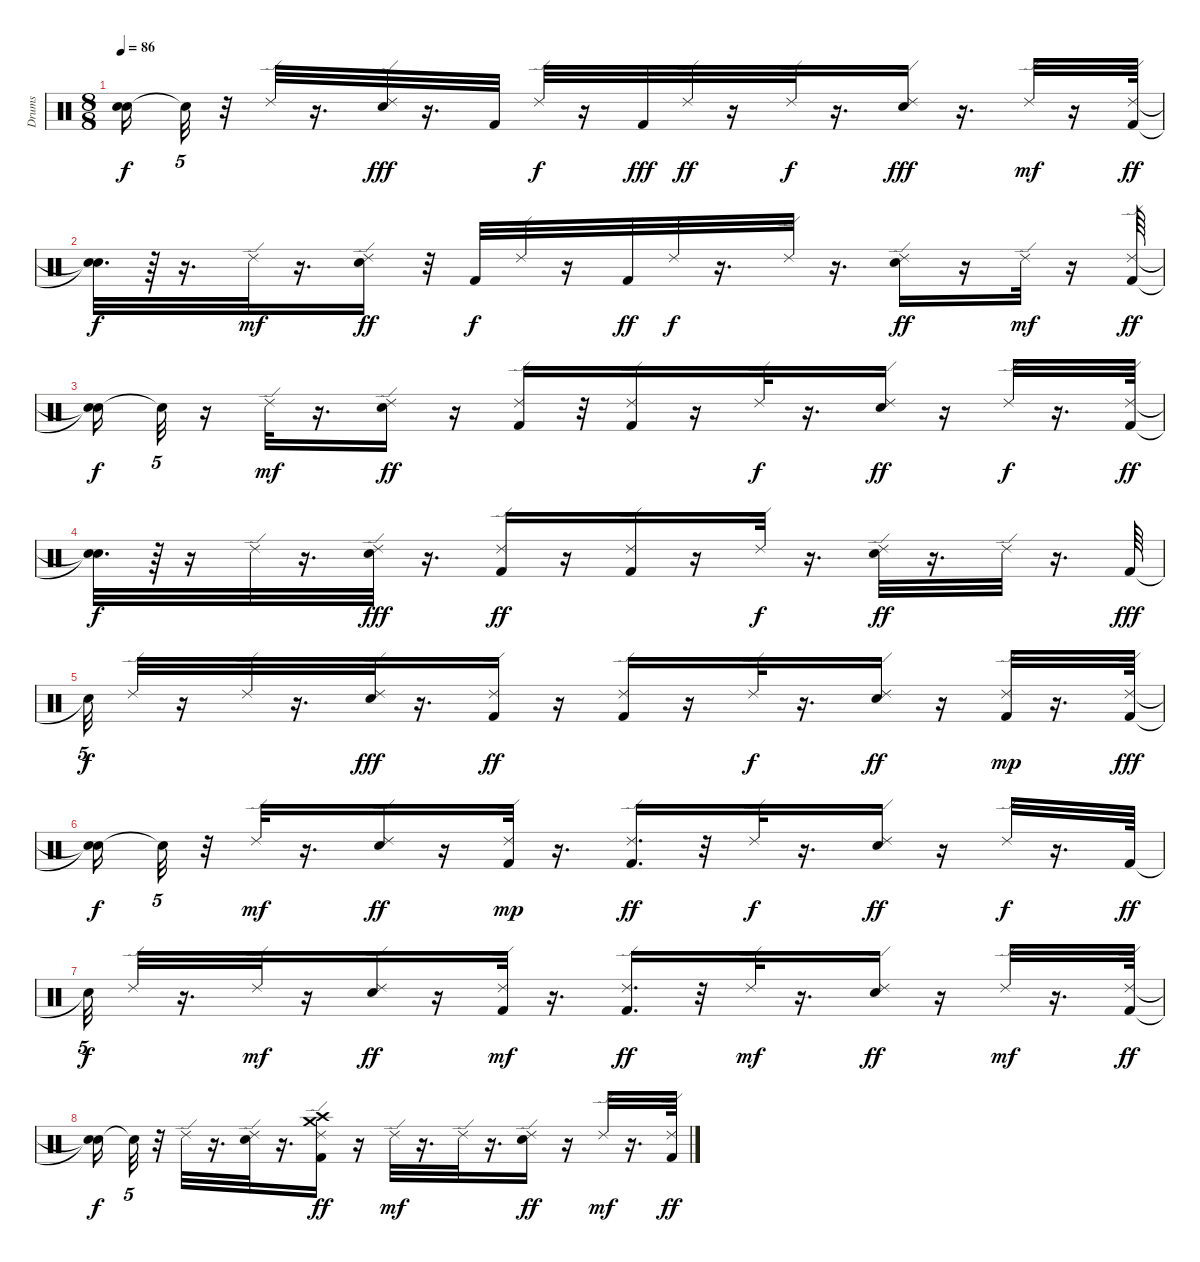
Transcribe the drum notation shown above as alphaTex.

\track ("Drums" "Drums") {instrument percussion}
\staff {score}
\articulation defaults
\ts (8 8)
\tempo 86
\clef neutral
\ks c
("Snare (hit)"{t} "Snare (hit)"{t}).16{dy f} "Snare (hit)"{t}.32{tu (5 4)} r.32 "Ride (edge) 2".32 r.16{d} ("Ride (edge) 2" "Electric Snare (hit)").32{dy fff} r.16{d} "Kick (hit) 2".32 "Ride (edge) 2".32{dy f} r.16 "Kick (hit) 2".32{dy fff} "Ride (edge) 2".32{dy ff} r.16 "Ride (edge) 2".32{dy f} r.16{d} ("Ride (edge) 2" "Electric Snare (hit)").16{dy fff} r.16{d} "Ride (edge) 2".32{dy mf} r.16 ("Kick (hit) 2" "Ride (edge) 2").64{dy ff} |
("Snare (hit)"{t} "Snare (hit)"{t}).32{d dy f} r.64 r.16{d} "Ride (edge) 2".32{dy mf} r.16{d} ("Electric Snare (hit)" "Ride (edge) 2").16{dy ff} r.32 "Kick (hit) 2".32{dy f} "Ride (edge) 2".32 r.16 "Kick (hit) 2".32{dy ff} "Ride (edge) 2".32{dy f} r.16{d} "Ride (edge) 2".32 r.16{d} ("Electric Snare (hit)" "Ride (edge) 2").16{dy ff} r.16 "Ride (edge) 2".32{dy mf} r.16 ("Kick (hit) 2" "Ride (edge) 2").64{dy ff} |
("Snare (hit)"{t} "Snare (hit)"{t}).16{dy f} "Snare (hit)"{t}.32{tu (5 4)} r.16 "Ride (edge) 2".32{dy mf} r.16{d} ("Ride (edge) 2" "Electric Snare (hit)").16{dy ff} r.16 ("Ride (edge) 2" "Kick (hit) 2").16 r.32 ("Kick (hit) 2" "Ride (edge) 2").16 r.16 "Ride (edge) 2".32{dy f} r.16{d} ("Electric Snare (hit)" "Ride (edge) 2").16{dy ff} r.16 "Ride (edge) 2".32{dy f} r.16{d} ("Kick (hit) 2" "Ride (edge) 2").64{dy ff} |
("Snare (hit)"{t} "Snare (hit)"{t}).32{d dy f} r.64 r.16 "Ride (edge) 2".32 r.16{d} ("Ride (edge) 2" "Electric Snare (hit)").32{dy fff} r.16{d} ("Kick (hit) 2" "Ride (edge) 2").16{dy ff} r.16 ("Kick (hit) 2" "Ride (edge) 2").16 r.16 "Ride (edge) 2".32{dy f} r.16{d} ("Ride (edge) 2" "Electric Snare (hit)").32{dy ff} r.16{d} "Ride (edge) 2".32 r.16{d} "Kick (hit) 2".64{dy fff} |
"Snare (hit)"{t}.32{tu (5 4) dy f} "Ride (edge) 2".32 r.16 "Ride (edge) 2".32 r.16{d} ("Electric Snare (hit)" "Ride (edge) 2").32{dy fff} r.16{d} ("Kick (hit) 2" "Ride (edge) 2").16{dy ff} r.16 ("Kick (hit) 2" "Ride (edge) 2").16 r.16 "Ride (edge) 2".32{dy f} r.16{d} ("Electric Snare (hit)" "Ride (edge) 2").16{dy ff} r.16 ("Kick (hit) 2" "Ride (edge) 2").32{dy mp} r.16{d} ("Ride (edge) 2" "Kick (hit) 2").64{dy fff} |
("Snare (hit)"{t} "Snare (hit)"{t}).16{dy f} "Snare (hit)"{t}.32{tu (5 4)} r.32 "Ride (edge) 2".32{dy mf} r.16{d} ("Electric Snare (hit)" "Ride (edge) 2").16{dy ff} r.16 ("Kick (hit) 2" "Ride (edge) 2").32{dy mp} r.16{d} ("Kick (hit) 2" "Ride (edge) 2").16{d dy ff} r.32 "Ride (edge) 2".32{dy f} r.16{d} ("Electric Snare (hit)" "Ride (edge) 2").16{dy ff} r.16 "Ride (edge) 2".32{dy f} r.16{d} "Kick (hit) 2".64{dy ff} |
"Snare (hit)"{t}.32{tu (5 4) dy f} "Ride (edge) 2".32 r.16{d} "Ride (edge) 2".32{dy mf} r.16 ("Electric Snare (hit)" "Ride (edge) 2").16{dy ff} r.16 ("Ride (edge) 2" "Kick (hit) 2").32{dy mf} r.16{d} ("Kick (hit) 2" "Ride (edge) 2").16{d dy ff} r.32 "Ride (edge) 2".32{dy mf} r.16{d} ("Electric Snare (hit)" "Ride (edge) 2").16{dy ff} r.16 "Ride (edge) 2".32{dy mf} r.16{d} ("Kick (hit) 2" "Ride (edge) 2").64{dy ff} |
("Snare (hit)"{t} "Snare (hit)"{t}).16{dy f} "Snare (hit)"{t}.32{tu (5 4)} r.32 "Ride (edge) 2".32 r.16{d} ("Ride (edge) 2" "Electric Snare (hit)").32 r.16{d} ("Kick (hit) 2" "Ride (edge) 2" "Crash high (hit)" "Crash medium (hit)").16{dy ff} r.16 "Ride (edge) 2".32{dy mf} r.16{d} "Ride (edge) 2".32 r.16{d} ("Ride (edge) 2" "Electric Snare (hit)").16{dy ff} r.16 "Ride (edge) 2".32{dy mf} r.16{d} ("Kick (hit) 2" "Ride (edge) 2").64{dy ff}
